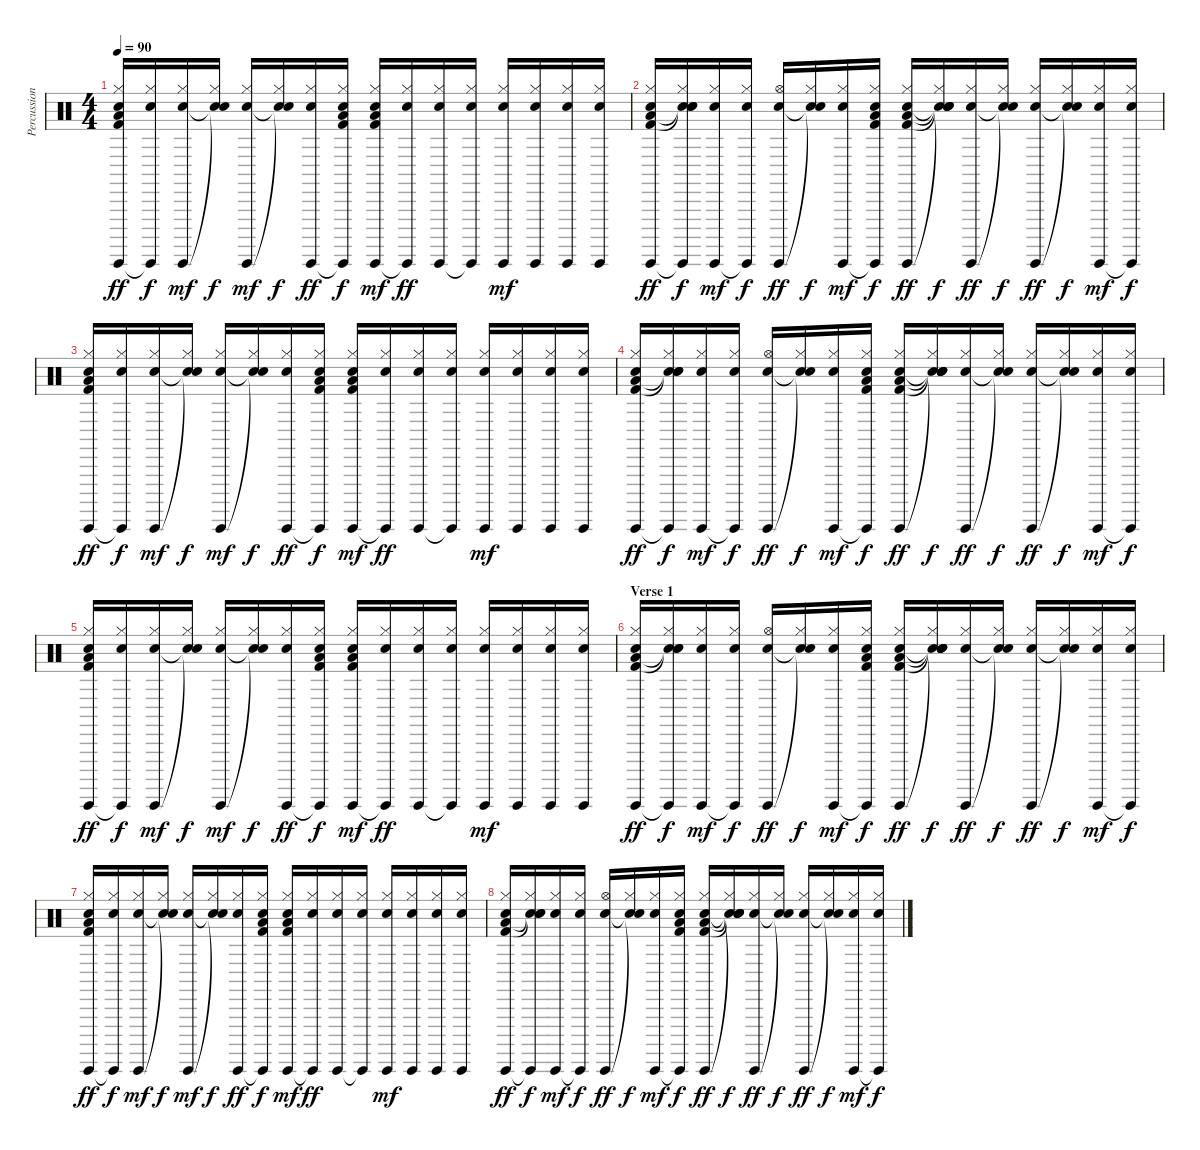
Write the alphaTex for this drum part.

\track ("Percussion" "Percussion") {instrument percussion}
\staff {score}
\articulation defaults
\ts (4 4)
\tempo 90
\clef neutral
\ks c
("Guiro (hit)" "Hi-Hat (closed)" "Hand Clap (hit)" "Low Floor Tom (hit)" "Kick (hit) 2").16{dy ff} ("Guiro (hit)"{t} "Hi-Hat (closed)" "Hand Clap (hit)").16{dy f} ("Guiro (hit)" "Hi-Hat (closed)" "Hand Clap (hit)").16{dy mf} ("Snare (hit)"{t} "Hi-Hat (closed)" "Snare (hit)"{t}).16{dy f} ("Guiro (hit)" "Hi-Hat (closed)" "Hand Clap (hit)").16{dy mf} ("Snare (hit)"{t} "Hi-Hat (closed)" "Snare (hit)"{t}).16{dy f} ("Guiro (hit)" "Hi-Hat (closed)" "Hand Clap (hit)").16{dy ff} ("Guiro (hit)"{t} "Hi-Hat (closed)" "Hand Clap (hit)" "Low Floor Tom (hit)" "Kick (hit) 2").16{dy f} ("Guiro (hit)" "Hi-Hat (closed)" "Hand Clap (hit)" "Low Floor Tom (hit)" "Kick (hit) 2").16{dy mf} ("Guiro (hit)"{t} "Hi-Hat (closed)" "Hand Clap (hit)").16{dy ff} ("Guiro (hit)" "Hi-Hat (closed)" "Hand Clap (hit)").16 ("Guiro (hit)"{t} "Hi-Hat (closed)" "Hand Clap (hit)").16 ("Guiro (hit)" "Hi-Hat (closed)" "Hand Clap (hit)").16{dy mf} ("Guiro (hit)" "Hi-Hat (closed)" "Hand Clap (hit)").16 ("Guiro (hit)" "Hi-Hat (closed)" "Hand Clap (hit)").16 ("Guiro (hit)" "Hi-Hat (closed)" "Hand Clap (hit)").16 |
("Guiro (hit)" "Hi-Hat (closed)" "Hand Clap (hit)" "Low Floor Tom (hit)" "Kick (hit) 2").16{dy ff} ("Guiro (hit)"{t} "Hi-Hat (closed)" "Hand Clap (hit)" "Snare (hit)"{t} "Snare (hit)"{t}).16{dy f} ("Guiro (hit)" "Hi-Hat (closed)" "Hand Clap (hit)").16{dy mf} ("Guiro (hit)"{t} "Hi-Hat (closed)" "Hand Clap (hit)").16{dy f} ("Guiro (hit)" "Hi-Hat (open)" "Hand Clap (hit)").16{dy ff} ("Snare (hit)"{t} "Hi-Hat (closed)" "Snare (hit)"{t}).16{dy f} ("Guiro (hit)" "Hi-Hat (closed)" "Hand Clap (hit)").16{dy mf} ("Guiro (hit)"{t} "Hi-Hat (closed)" "Hand Clap (hit)" "Low Floor Tom (hit)" "Kick (hit) 2").16{dy f} ("Guiro (hit)" "Hi-Hat (closed)" "Hand Clap (hit)" "Low Floor Tom (hit)" "Kick (hit) 2").16{dy ff} ("Snare (hit)"{t} "Hi-Hat (closed)" "Snare (hit)"{t} "Snare (hit)"{t} "Snare (hit)"{t}).16{dy f} ("Guiro (hit)" "Hi-Hat (closed)" "Hand Clap (hit)").16{dy ff} ("Snare (hit)"{t} "Hi-Hat (closed)" "Snare (hit)"{t}).16{dy f} ("Guiro (hit)" "Hi-Hat (closed)" "Hand Clap (hit)").16{dy ff} ("Snare (hit)"{t} "Hi-Hat (closed)" "Snare (hit)"{t}).16{dy f} ("Guiro (hit)" "Hi-Hat (closed)" "Hand Clap (hit)").16{dy mf} ("Guiro (hit)"{t} "Hi-Hat (closed)" "Hand Clap (hit)").16{dy f} |
("Guiro (hit)" "Hi-Hat (closed)" "Hand Clap (hit)" "Low Floor Tom (hit)" "Kick (hit) 2").16{dy ff} ("Guiro (hit)"{t} "Hi-Hat (closed)" "Hand Clap (hit)").16{dy f} ("Guiro (hit)" "Hi-Hat (closed)" "Hand Clap (hit)").16{dy mf} ("Snare (hit)"{t} "Hi-Hat (closed)" "Snare (hit)"{t}).16{dy f} ("Guiro (hit)" "Hi-Hat (closed)" "Hand Clap (hit)").16{dy mf} ("Snare (hit)"{t} "Hi-Hat (closed)" "Snare (hit)"{t}).16{dy f} ("Guiro (hit)" "Hi-Hat (closed)" "Hand Clap (hit)").16{dy ff} ("Guiro (hit)"{t} "Hi-Hat (closed)" "Hand Clap (hit)" "Low Floor Tom (hit)" "Kick (hit) 2").16{dy f} ("Guiro (hit)" "Hi-Hat (closed)" "Hand Clap (hit)" "Low Floor Tom (hit)" "Kick (hit) 2").16{dy mf} ("Guiro (hit)"{t} "Hi-Hat (closed)" "Hand Clap (hit)").16{dy ff} ("Guiro (hit)" "Hi-Hat (closed)" "Hand Clap (hit)").16 ("Guiro (hit)"{t} "Hi-Hat (closed)" "Hand Clap (hit)").16 ("Guiro (hit)" "Hi-Hat (closed)" "Hand Clap (hit)").16{dy mf} ("Guiro (hit)" "Hi-Hat (closed)" "Hand Clap (hit)").16 ("Guiro (hit)" "Hi-Hat (closed)" "Hand Clap (hit)").16 ("Guiro (hit)" "Hi-Hat (closed)" "Hand Clap (hit)").16 |
("Guiro (hit)" "Hi-Hat (closed)" "Hand Clap (hit)" "Low Floor Tom (hit)" "Kick (hit) 2").16{dy ff} ("Guiro (hit)"{t} "Hi-Hat (closed)" "Hand Clap (hit)" "Snare (hit)"{t} "Snare (hit)"{t}).16{dy f} ("Guiro (hit)" "Hi-Hat (closed)" "Hand Clap (hit)").16{dy mf} ("Guiro (hit)"{t} "Hi-Hat (closed)" "Hand Clap (hit)").16{dy f} ("Guiro (hit)" "Hi-Hat (open)" "Hand Clap (hit)").16{dy ff} ("Snare (hit)"{t} "Hi-Hat (closed)" "Snare (hit)"{t}).16{dy f} ("Guiro (hit)" "Hi-Hat (closed)" "Hand Clap (hit)").16{dy mf} ("Guiro (hit)"{t} "Hi-Hat (closed)" "Hand Clap (hit)" "Low Floor Tom (hit)" "Kick (hit) 2").16{dy f} ("Guiro (hit)" "Hi-Hat (closed)" "Hand Clap (hit)" "Low Floor Tom (hit)" "Kick (hit) 2").16{dy ff} ("Snare (hit)"{t} "Hi-Hat (closed)" "Snare (hit)"{t} "Snare (hit)"{t} "Snare (hit)"{t}).16{dy f} ("Guiro (hit)" "Hi-Hat (closed)" "Hand Clap (hit)").16{dy ff} ("Snare (hit)"{t} "Hi-Hat (closed)" "Snare (hit)"{t}).16{dy f} ("Guiro (hit)" "Hi-Hat (closed)" "Hand Clap (hit)").16{dy ff} ("Snare (hit)"{t} "Hi-Hat (closed)" "Snare (hit)"{t}).16{dy f} ("Guiro (hit)" "Hi-Hat (closed)" "Hand Clap (hit)").16{dy mf} ("Guiro (hit)"{t} "Hi-Hat (closed)" "Hand Clap (hit)").16{dy f} |
("Guiro (hit)" "Hi-Hat (closed)" "Hand Clap (hit)" "Low Floor Tom (hit)" "Kick (hit) 2").16{dy ff} ("Guiro (hit)"{t} "Hi-Hat (closed)" "Hand Clap (hit)").16{dy f} ("Guiro (hit)" "Hi-Hat (closed)" "Hand Clap (hit)").16{dy mf} ("Snare (hit)"{t} "Hi-Hat (closed)" "Snare (hit)"{t}).16{dy f} ("Guiro (hit)" "Hi-Hat (closed)" "Hand Clap (hit)").16{dy mf} ("Snare (hit)"{t} "Hi-Hat (closed)" "Snare (hit)"{t}).16{dy f} ("Guiro (hit)" "Hi-Hat (closed)" "Hand Clap (hit)").16{dy ff} ("Guiro (hit)"{t} "Hi-Hat (closed)" "Hand Clap (hit)" "Low Floor Tom (hit)" "Kick (hit) 2").16{dy f} ("Guiro (hit)" "Hi-Hat (closed)" "Hand Clap (hit)" "Low Floor Tom (hit)" "Kick (hit) 2").16{dy mf} ("Guiro (hit)"{t} "Hi-Hat (closed)" "Hand Clap (hit)").16{dy ff} ("Guiro (hit)" "Hi-Hat (closed)" "Hand Clap (hit)").16 ("Guiro (hit)"{t} "Hi-Hat (closed)" "Hand Clap (hit)").16 ("Guiro (hit)" "Hi-Hat (closed)" "Hand Clap (hit)").16{dy mf} ("Guiro (hit)" "Hi-Hat (closed)" "Hand Clap (hit)").16 ("Guiro (hit)" "Hi-Hat (closed)" "Hand Clap (hit)").16 ("Guiro (hit)" "Hi-Hat (closed)" "Hand Clap (hit)").16 |
\section ("" "Verse 1")
("Guiro (hit)" "Hi-Hat (closed)" "Hand Clap (hit)" "Low Floor Tom (hit)" "Kick (hit) 2").16{dy ff} ("Guiro (hit)"{t} "Hi-Hat (closed)" "Hand Clap (hit)" "Snare (hit)"{t} "Snare (hit)"{t}).16{dy f} ("Guiro (hit)" "Hi-Hat (closed)" "Hand Clap (hit)").16{dy mf} ("Guiro (hit)"{t} "Hi-Hat (closed)" "Hand Clap (hit)").16{dy f} ("Guiro (hit)" "Hi-Hat (open)" "Hand Clap (hit)").16{dy ff} ("Snare (hit)"{t} "Hi-Hat (closed)" "Snare (hit)"{t}).16{dy f} ("Guiro (hit)" "Hi-Hat (closed)" "Hand Clap (hit)").16{dy mf} ("Guiro (hit)"{t} "Hi-Hat (closed)" "Hand Clap (hit)" "Low Floor Tom (hit)" "Kick (hit) 2").16{dy f} ("Guiro (hit)" "Hi-Hat (closed)" "Hand Clap (hit)" "Low Floor Tom (hit)" "Kick (hit) 2").16{dy ff} ("Snare (hit)"{t} "Hi-Hat (closed)" "Snare (hit)"{t} "Snare (hit)"{t} "Snare (hit)"{t}).16{dy f} ("Guiro (hit)" "Hi-Hat (closed)" "Hand Clap (hit)").16{dy ff} ("Snare (hit)"{t} "Hi-Hat (closed)" "Snare (hit)"{t}).16{dy f} ("Guiro (hit)" "Hi-Hat (closed)" "Hand Clap (hit)").16{dy ff} ("Snare (hit)"{t} "Hi-Hat (closed)" "Snare (hit)"{t}).16{dy f} ("Guiro (hit)" "Hi-Hat (closed)" "Hand Clap (hit)").16{dy mf} ("Guiro (hit)"{t} "Hi-Hat (closed)" "Hand Clap (hit)").16{dy f} |
("Guiro (hit)" "Hi-Hat (closed)" "Hand Clap (hit)" "Low Floor Tom (hit)" "Kick (hit) 2").16{dy ff} ("Guiro (hit)"{t} "Hi-Hat (closed)" "Hand Clap (hit)").16{dy f} ("Guiro (hit)" "Hi-Hat (closed)" "Hand Clap (hit)").16{dy mf} ("Snare (hit)"{t} "Hi-Hat (closed)" "Snare (hit)"{t}).16{dy f} ("Guiro (hit)" "Hi-Hat (closed)" "Hand Clap (hit)").16{dy mf} ("Snare (hit)"{t} "Hi-Hat (closed)" "Snare (hit)"{t}).16{dy f} ("Guiro (hit)" "Hi-Hat (closed)" "Hand Clap (hit)").16{dy ff} ("Guiro (hit)"{t} "Hi-Hat (closed)" "Hand Clap (hit)" "Low Floor Tom (hit)" "Kick (hit) 2").16{dy f} ("Guiro (hit)" "Hi-Hat (closed)" "Hand Clap (hit)" "Low Floor Tom (hit)" "Kick (hit) 2").16{dy mf} ("Guiro (hit)"{t} "Hi-Hat (closed)" "Hand Clap (hit)").16{dy ff} ("Guiro (hit)" "Hi-Hat (closed)" "Hand Clap (hit)").16 ("Guiro (hit)"{t} "Hi-Hat (closed)" "Hand Clap (hit)").16 ("Guiro (hit)" "Hi-Hat (closed)" "Hand Clap (hit)").16{dy mf} ("Guiro (hit)" "Hi-Hat (closed)" "Hand Clap (hit)").16 ("Guiro (hit)" "Hi-Hat (closed)" "Hand Clap (hit)").16 ("Guiro (hit)" "Hi-Hat (closed)" "Hand Clap (hit)").16 |
("Guiro (hit)" "Hi-Hat (closed)" "Hand Clap (hit)" "Low Floor Tom (hit)" "Kick (hit) 2").16{dy ff} ("Guiro (hit)"{t} "Hi-Hat (closed)" "Hand Clap (hit)" "Snare (hit)"{t} "Snare (hit)"{t}).16{dy f} ("Guiro (hit)" "Hi-Hat (closed)" "Hand Clap (hit)").16{dy mf} ("Guiro (hit)"{t} "Hi-Hat (closed)" "Hand Clap (hit)").16{dy f} ("Guiro (hit)" "Hi-Hat (open)" "Hand Clap (hit)").16{dy ff} ("Snare (hit)"{t} "Hi-Hat (closed)" "Snare (hit)"{t}).16{dy f} ("Guiro (hit)" "Hi-Hat (closed)" "Hand Clap (hit)").16{dy mf} ("Guiro (hit)"{t} "Hi-Hat (closed)" "Hand Clap (hit)" "Low Floor Tom (hit)" "Kick (hit) 2").16{dy f} ("Guiro (hit)" "Hi-Hat (closed)" "Hand Clap (hit)" "Low Floor Tom (hit)" "Kick (hit) 2").16{dy ff} ("Snare (hit)"{t} "Hi-Hat (closed)" "Snare (hit)"{t} "Snare (hit)"{t} "Snare (hit)"{t}).16{dy f} ("Guiro (hit)" "Hi-Hat (closed)" "Hand Clap (hit)").16{dy ff} ("Snare (hit)"{t} "Hi-Hat (closed)" "Snare (hit)"{t}).16{dy f} ("Guiro (hit)" "Hi-Hat (closed)" "Hand Clap (hit)").16{dy ff} ("Snare (hit)"{t} "Hi-Hat (closed)" "Snare (hit)"{t}).16{dy f} ("Guiro (hit)" "Hi-Hat (closed)" "Hand Clap (hit)").16{dy mf} ("Guiro (hit)"{t} "Hi-Hat (closed)" "Hand Clap (hit)").16{dy f}
